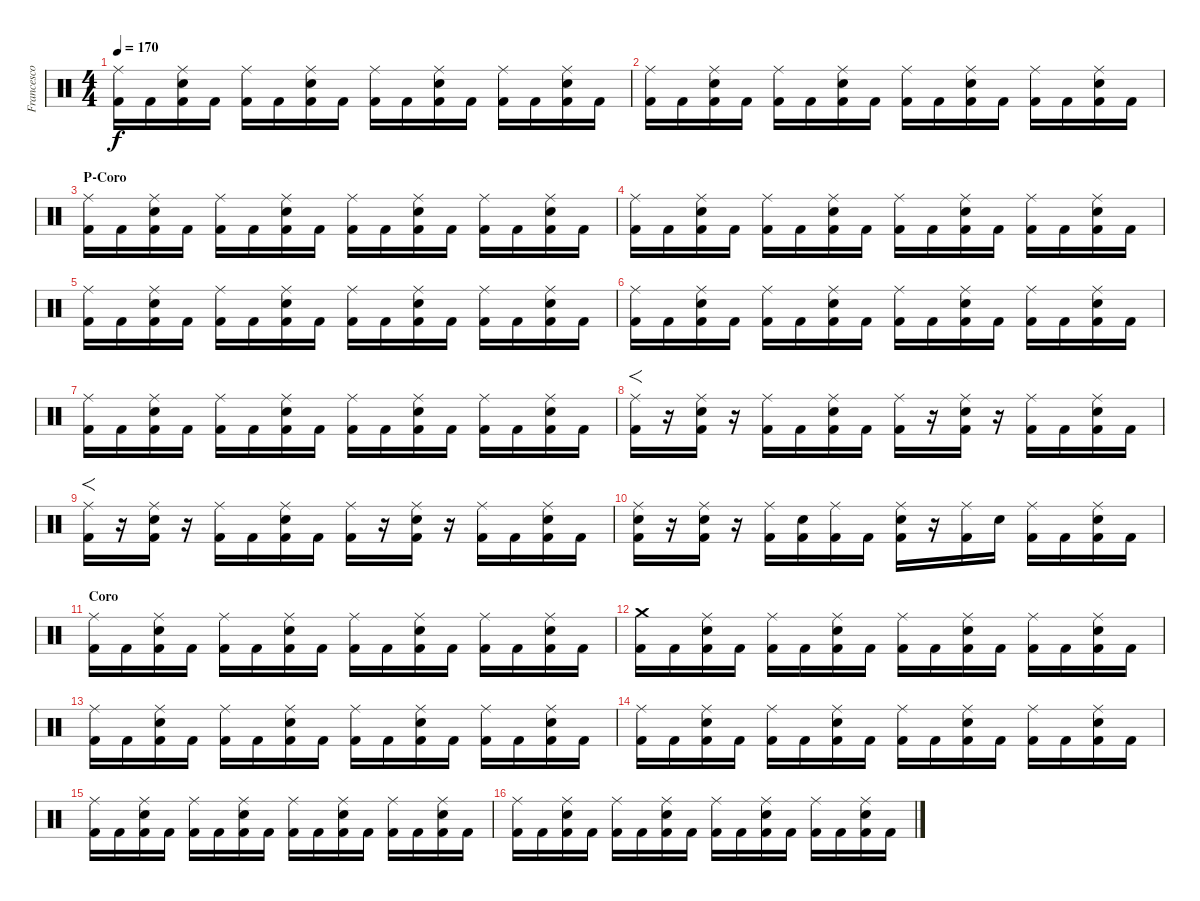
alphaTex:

\track ("Francesco Tresa" "Francesco ") {instrument percussion}
\staff {score}
\articulation defaults
\ts (4 4)
\tempo 170
\clef neutral
\ks c
("Ride (middle)" "Kick (hit) 2").16{dy f} "Kick (hit) 2".16 ("Ride (middle)" "Kick (hit) 2" "Electric Snare (hit)").16 "Kick (hit) 2".16 ("Ride (middle)" "Kick (hit) 2").16 "Kick (hit) 2".16 ("Ride (middle)" "Kick (hit) 2" "Electric Snare (hit)").16 "Kick (hit) 2".16 ("Ride (middle)" "Kick (hit) 2").16 "Kick (hit) 2".16 ("Ride (middle)" "Kick (hit) 2" "Electric Snare (hit)").16 "Kick (hit) 2".16 ("Ride (middle)" "Kick (hit) 2").16 "Kick (hit) 2".16 ("Ride (middle)" "Kick (hit) 2" "Electric Snare (hit)").16 "Kick (hit) 2".16 |
("Ride (middle)" "Kick (hit) 2").16 "Kick (hit) 2".16 ("Ride (middle)" "Kick (hit) 2" "Electric Snare (hit)").16 "Kick (hit) 2".16 ("Ride (middle)" "Kick (hit) 2").16 "Kick (hit) 2".16 ("Ride (middle)" "Kick (hit) 2" "Electric Snare (hit)").16 "Kick (hit) 2".16 ("Ride (middle)" "Kick (hit) 2").16 "Kick (hit) 2".16 ("Ride (middle)" "Kick (hit) 2" "Electric Snare (hit)").16 "Kick (hit) 2".16 ("Ride (middle)" "Kick (hit) 2").16 "Kick (hit) 2".16 ("Ride (middle)" "Kick (hit) 2" "Electric Snare (hit)").16 "Kick (hit) 2".16 |
\section ("" "P-Coro")
("Ride (middle)" "Kick (hit) 2").16 "Kick (hit) 2".16 ("Ride (middle)" "Kick (hit) 2" "Electric Snare (hit)").16 "Kick (hit) 2".16 ("Ride (middle)" "Kick (hit) 2").16 "Kick (hit) 2".16 ("Ride (middle)" "Kick (hit) 2" "Electric Snare (hit)").16 "Kick (hit) 2".16 ("Ride (middle)" "Kick (hit) 2").16 "Kick (hit) 2".16 ("Ride (middle)" "Kick (hit) 2" "Electric Snare (hit)").16 "Kick (hit) 2".16 ("Ride (middle)" "Kick (hit) 2").16 "Kick (hit) 2".16 ("Ride (middle)" "Kick (hit) 2" "Electric Snare (hit)").16 "Kick (hit) 2".16 |
("Ride (middle)" "Kick (hit) 2").16 "Kick (hit) 2".16 ("Ride (middle)" "Kick (hit) 2" "Electric Snare (hit)").16 "Kick (hit) 2".16 ("Ride (middle)" "Kick (hit) 2").16 "Kick (hit) 2".16 ("Ride (middle)" "Kick (hit) 2" "Electric Snare (hit)").16 "Kick (hit) 2".16 ("Ride (middle)" "Kick (hit) 2").16 "Kick (hit) 2".16 ("Ride (middle)" "Kick (hit) 2" "Electric Snare (hit)").16 "Kick (hit) 2".16 ("Ride (middle)" "Kick (hit) 2").16 "Kick (hit) 2".16 ("Ride (middle)" "Kick (hit) 2" "Electric Snare (hit)").16 "Kick (hit) 2".16 |
("Ride (middle)" "Kick (hit) 2").16 "Kick (hit) 2".16 ("Ride (middle)" "Kick (hit) 2" "Electric Snare (hit)").16 "Kick (hit) 2".16 ("Ride (middle)" "Kick (hit) 2").16 "Kick (hit) 2".16 ("Ride (middle)" "Kick (hit) 2" "Electric Snare (hit)").16 "Kick (hit) 2".16 ("Ride (middle)" "Kick (hit) 2").16 "Kick (hit) 2".16 ("Ride (middle)" "Kick (hit) 2" "Electric Snare (hit)").16 "Kick (hit) 2".16 ("Ride (middle)" "Kick (hit) 2").16 "Kick (hit) 2".16 ("Ride (middle)" "Kick (hit) 2" "Electric Snare (hit)").16 "Kick (hit) 2".16 |
("Ride (middle)" "Kick (hit) 2").16 "Kick (hit) 2".16 ("Ride (middle)" "Kick (hit) 2" "Electric Snare (hit)").16 "Kick (hit) 2".16 ("Ride (middle)" "Kick (hit) 2").16 "Kick (hit) 2".16 ("Ride (middle)" "Kick (hit) 2" "Electric Snare (hit)").16 "Kick (hit) 2".16 ("Ride (middle)" "Kick (hit) 2").16 "Kick (hit) 2".16 ("Ride (middle)" "Kick (hit) 2" "Electric Snare (hit)").16 "Kick (hit) 2".16 ("Ride (middle)" "Kick (hit) 2").16 "Kick (hit) 2".16 ("Ride (middle)" "Kick (hit) 2" "Electric Snare (hit)").16 "Kick (hit) 2".16 |
("Ride (middle)" "Kick (hit) 2").16 "Kick (hit) 2".16 ("Ride (middle)" "Kick (hit) 2" "Electric Snare (hit)").16 "Kick (hit) 2".16 ("Ride (middle)" "Kick (hit) 2").16 "Kick (hit) 2".16 ("Ride (middle)" "Kick (hit) 2" "Electric Snare (hit)").16 "Kick (hit) 2".16 ("Ride (middle)" "Kick (hit) 2").16 "Kick (hit) 2".16 ("Ride (middle)" "Kick (hit) 2" "Electric Snare (hit)").16 "Kick (hit) 2".16 ("Ride (middle)" "Kick (hit) 2").16 "Kick (hit) 2".16 ("Ride (middle)" "Kick (hit) 2" "Electric Snare (hit)").16 "Kick (hit) 2".16 |
("Ride (middle)" "Kick (hit) 2").16{f} r.16 ("Ride (middle)" "Kick (hit) 2" "Electric Snare (hit)").16 r.16 ("Ride (middle)" "Kick (hit) 2").16 "Kick (hit) 2".16 ("Ride (middle)" "Kick (hit) 2" "Electric Snare (hit)").16 "Kick (hit) 2".16 ("Ride (middle)" "Kick (hit) 2").16 r.16 ("Ride (middle)" "Kick (hit) 2" "Electric Snare (hit)").16 r.16 ("Ride (middle)" "Kick (hit) 2").16 "Kick (hit) 2".16 ("Ride (middle)" "Kick (hit) 2" "Electric Snare (hit)").16 "Kick (hit) 2".16 |
("Ride (middle)" "Kick (hit) 2").16{f} r.16 ("Ride (middle)" "Kick (hit) 2" "Electric Snare (hit)").16 r.16 ("Ride (middle)" "Kick (hit) 2").16 "Kick (hit) 2".16 ("Ride (middle)" "Kick (hit) 2" "Electric Snare (hit)").16 "Kick (hit) 2".16 ("Ride (middle)" "Kick (hit) 2").16 r.16 ("Ride (middle)" "Kick (hit) 2" "Electric Snare (hit)").16 r.16 ("Ride (middle)" "Kick (hit) 2").16 "Kick (hit) 2".16 ("Ride (middle)" "Kick (hit) 2" "Electric Snare (hit)").16 "Kick (hit) 2".16 |
("Ride (middle)" "Kick (hit) 2" "Electric Snare (hit)").16 r.16 ("Ride (middle)" "Kick (hit) 2" "Electric Snare (hit)").16 r.16 ("Ride (middle)" "Kick (hit) 2").16 ("Kick (hit) 2" "Electric Snare (hit)").16 ("Ride (middle)" "Kick (hit) 2").16 "Kick (hit) 2".16 ("Ride (middle)" "Kick (hit) 2" "Electric Snare (hit)").16 r.16 ("Ride (middle)" "Kick (hit) 2").16 "Electric Snare (hit)".16 ("Ride (middle)" "Kick (hit) 2").16 "Kick (hit) 2".16 ("Ride (middle)" "Kick (hit) 2" "Electric Snare (hit)").16 "Kick (hit) 2".16 |
\section ("" "Coro")
("Ride (middle)" "Kick (hit) 2").16 "Kick (hit) 2".16 ("Ride (middle)" "Kick (hit) 2" "Electric Snare (hit)").16 "Kick (hit) 2".16 ("Ride (middle)" "Kick (hit) 2").16 "Kick (hit) 2".16 ("Ride (middle)" "Kick (hit) 2" "Electric Snare (hit)").16 "Kick (hit) 2".16 ("Ride (middle)" "Kick (hit) 2").16 "Kick (hit) 2".16 ("Ride (middle)" "Kick (hit) 2" "Electric Snare (hit)").16 "Kick (hit) 2".16 ("Ride (middle)" "Kick (hit) 2").16 "Kick (hit) 2".16 ("Ride (middle)" "Kick (hit) 2" "Electric Snare (hit)").16 "Kick (hit) 2".16 |
("Crash medium (hit)" "Kick (hit) 2").16 "Kick (hit) 2".16 ("Ride (middle)" "Kick (hit) 2" "Electric Snare (hit)").16 "Kick (hit) 2".16 ("Ride (middle)" "Kick (hit) 2").16 "Kick (hit) 2".16 ("Ride (middle)" "Kick (hit) 2" "Electric Snare (hit)").16 "Kick (hit) 2".16 ("Ride (middle)" "Kick (hit) 2").16 "Kick (hit) 2".16 ("Ride (middle)" "Kick (hit) 2" "Electric Snare (hit)").16 "Kick (hit) 2".16 ("Ride (middle)" "Kick (hit) 2").16 "Kick (hit) 2".16 ("Ride (middle)" "Kick (hit) 2" "Electric Snare (hit)").16 "Kick (hit) 2".16 |
("Ride (middle)" "Kick (hit) 2").16 "Kick (hit) 2".16 ("Ride (middle)" "Kick (hit) 2" "Electric Snare (hit)").16 "Kick (hit) 2".16 ("Ride (middle)" "Kick (hit) 2").16 "Kick (hit) 2".16 ("Ride (middle)" "Kick (hit) 2" "Electric Snare (hit)").16 "Kick (hit) 2".16 ("Ride (middle)" "Kick (hit) 2").16 "Kick (hit) 2".16 ("Ride (middle)" "Kick (hit) 2" "Electric Snare (hit)").16 "Kick (hit) 2".16 ("Ride (middle)" "Kick (hit) 2").16 "Kick (hit) 2".16 ("Ride (middle)" "Kick (hit) 2" "Electric Snare (hit)").16 "Kick (hit) 2".16 |
("Ride (middle)" "Kick (hit) 2").16 "Kick (hit) 2".16 ("Ride (middle)" "Kick (hit) 2" "Electric Snare (hit)").16 "Kick (hit) 2".16 ("Ride (middle)" "Kick (hit) 2").16 "Kick (hit) 2".16 ("Ride (middle)" "Kick (hit) 2" "Electric Snare (hit)").16 "Kick (hit) 2".16 ("Ride (middle)" "Kick (hit) 2").16 "Kick (hit) 2".16 ("Ride (middle)" "Kick (hit) 2" "Electric Snare (hit)").16 "Kick (hit) 2".16 ("Ride (middle)" "Kick (hit) 2").16 "Kick (hit) 2".16 ("Ride (middle)" "Kick (hit) 2" "Electric Snare (hit)").16 "Kick (hit) 2".16 |
("Ride (middle)" "Kick (hit) 2").16 "Kick (hit) 2".16 ("Ride (middle)" "Kick (hit) 2" "Electric Snare (hit)").16 "Kick (hit) 2".16 ("Ride (middle)" "Kick (hit) 2").16 "Kick (hit) 2".16 ("Ride (middle)" "Kick (hit) 2" "Electric Snare (hit)").16 "Kick (hit) 2".16 ("Ride (middle)" "Kick (hit) 2").16 "Kick (hit) 2".16 ("Ride (middle)" "Kick (hit) 2" "Electric Snare (hit)").16 "Kick (hit) 2".16 ("Ride (middle)" "Kick (hit) 2").16 "Kick (hit) 2".16 ("Ride (middle)" "Kick (hit) 2" "Electric Snare (hit)").16 "Kick (hit) 2".16 |
("Ride (middle)" "Kick (hit) 2").16 "Kick (hit) 2".16 ("Ride (middle)" "Kick (hit) 2" "Electric Snare (hit)").16 "Kick (hit) 2".16 ("Ride (middle)" "Kick (hit) 2").16 "Kick (hit) 2".16 ("Ride (middle)" "Kick (hit) 2" "Electric Snare (hit)").16 "Kick (hit) 2".16 ("Ride (middle)" "Kick (hit) 2").16 "Kick (hit) 2".16 ("Ride (middle)" "Kick (hit) 2" "Electric Snare (hit)").16 "Kick (hit) 2".16 ("Ride (middle)" "Kick (hit) 2").16 "Kick (hit) 2".16 ("Ride (middle)" "Kick (hit) 2" "Electric Snare (hit)").16 "Kick (hit) 2".16
